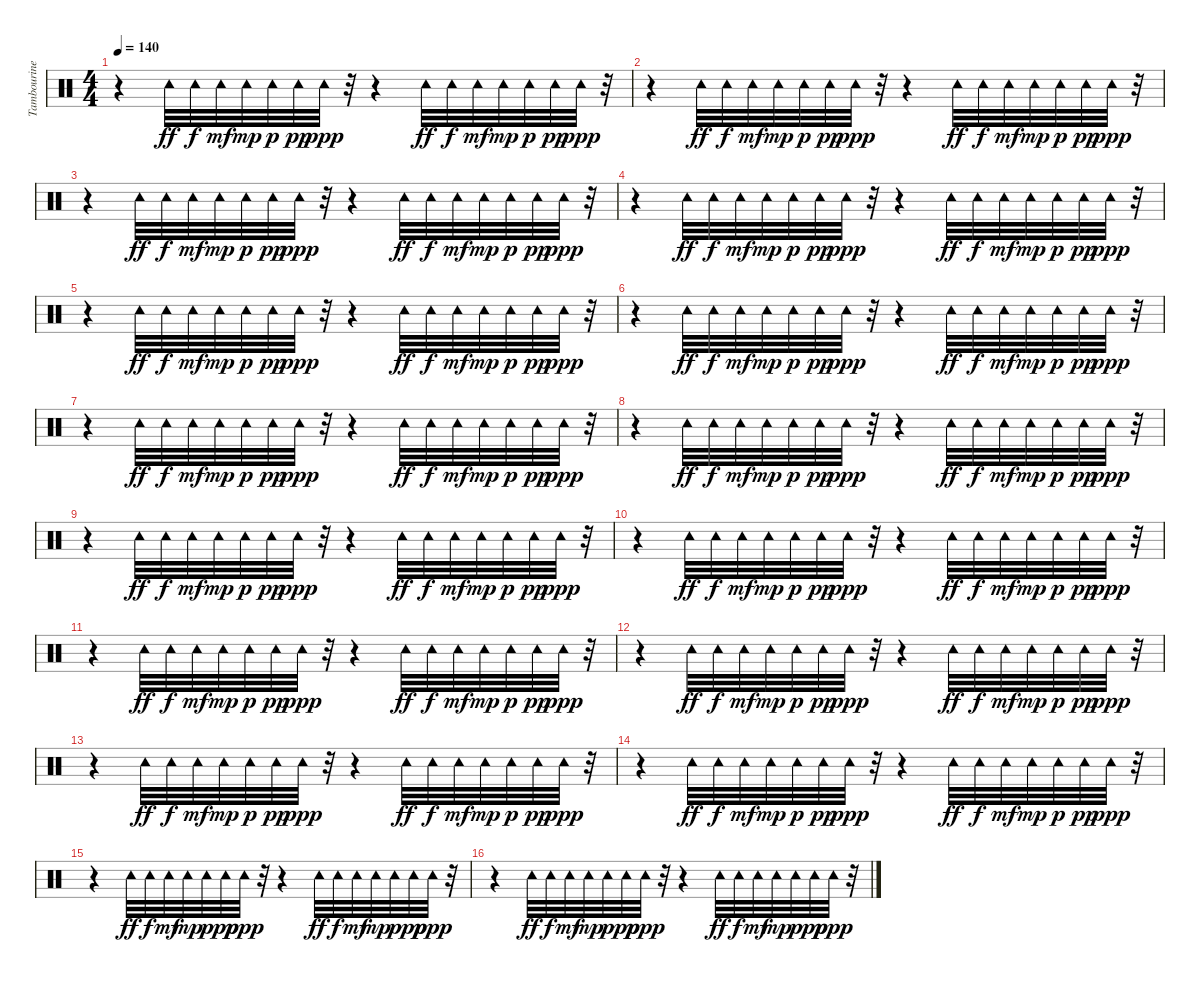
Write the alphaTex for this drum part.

\track ("Tambourine" "Tambourine") {instrument percussion}
\staff {score}
\articulation defaults
\ts (4 4)
\tempo 140
\clef neutral
\ks c
r.4{dy ppp} "Tambourine (hit)".32{dy ff} "Tambourine (hit)".32{dy f} "Tambourine (hit)".32{dy mf} "Tambourine (hit)".32{dy mp} "Tambourine (hit)".32{dy p} "Tambourine (hit)".32{dy pp} "Tambourine (hit)".32{dy ppp} r.32 r.4 "Tambourine (hit)".32{dy ff} "Tambourine (hit)".32{dy f} "Tambourine (hit)".32{dy mf} "Tambourine (hit)".32{dy mp} "Tambourine (hit)".32{dy p} "Tambourine (hit)".32{dy pp} "Tambourine (hit)".32{dy ppp} r.32 |
r.4 "Tambourine (hit)".32{dy ff} "Tambourine (hit)".32{dy f} "Tambourine (hit)".32{dy mf} "Tambourine (hit)".32{dy mp} "Tambourine (hit)".32{dy p} "Tambourine (hit)".32{dy pp} "Tambourine (hit)".32{dy ppp} r.32 r.4 "Tambourine (hit)".32{dy ff} "Tambourine (hit)".32{dy f} "Tambourine (hit)".32{dy mf} "Tambourine (hit)".32{dy mp} "Tambourine (hit)".32{dy p} "Tambourine (hit)".32{dy pp} "Tambourine (hit)".32{dy ppp} r.32 |
r.4 "Tambourine (hit)".32{dy ff} "Tambourine (hit)".32{dy f} "Tambourine (hit)".32{dy mf} "Tambourine (hit)".32{dy mp} "Tambourine (hit)".32{dy p} "Tambourine (hit)".32{dy pp} "Tambourine (hit)".32{dy ppp} r.32 r.4 "Tambourine (hit)".32{dy ff} "Tambourine (hit)".32{dy f} "Tambourine (hit)".32{dy mf} "Tambourine (hit)".32{dy mp} "Tambourine (hit)".32{dy p} "Tambourine (hit)".32{dy pp} "Tambourine (hit)".32{dy ppp} r.32 |
r.4 "Tambourine (hit)".32{dy ff} "Tambourine (hit)".32{dy f} "Tambourine (hit)".32{dy mf} "Tambourine (hit)".32{dy mp} "Tambourine (hit)".32{dy p} "Tambourine (hit)".32{dy pp} "Tambourine (hit)".32{dy ppp} r.32 r.4 "Tambourine (hit)".32{dy ff} "Tambourine (hit)".32{dy f} "Tambourine (hit)".32{dy mf} "Tambourine (hit)".32{dy mp} "Tambourine (hit)".32{dy p} "Tambourine (hit)".32{dy pp} "Tambourine (hit)".32{dy ppp} r.32 |
r.4 "Tambourine (hit)".32{dy ff} "Tambourine (hit)".32{dy f} "Tambourine (hit)".32{dy mf} "Tambourine (hit)".32{dy mp} "Tambourine (hit)".32{dy p} "Tambourine (hit)".32{dy pp} "Tambourine (hit)".32{dy ppp} r.32 r.4 "Tambourine (hit)".32{dy ff} "Tambourine (hit)".32{dy f} "Tambourine (hit)".32{dy mf} "Tambourine (hit)".32{dy mp} "Tambourine (hit)".32{dy p} "Tambourine (hit)".32{dy pp} "Tambourine (hit)".32{dy ppp} r.32 |
r.4 "Tambourine (hit)".32{dy ff} "Tambourine (hit)".32{dy f} "Tambourine (hit)".32{dy mf} "Tambourine (hit)".32{dy mp} "Tambourine (hit)".32{dy p} "Tambourine (hit)".32{dy pp} "Tambourine (hit)".32{dy ppp} r.32 r.4 "Tambourine (hit)".32{dy ff} "Tambourine (hit)".32{dy f} "Tambourine (hit)".32{dy mf} "Tambourine (hit)".32{dy mp} "Tambourine (hit)".32{dy p} "Tambourine (hit)".32{dy pp} "Tambourine (hit)".32{dy ppp} r.32 |
r.4 "Tambourine (hit)".32{dy ff} "Tambourine (hit)".32{dy f} "Tambourine (hit)".32{dy mf} "Tambourine (hit)".32{dy mp} "Tambourine (hit)".32{dy p} "Tambourine (hit)".32{dy pp} "Tambourine (hit)".32{dy ppp} r.32 r.4 "Tambourine (hit)".32{dy ff} "Tambourine (hit)".32{dy f} "Tambourine (hit)".32{dy mf} "Tambourine (hit)".32{dy mp} "Tambourine (hit)".32{dy p} "Tambourine (hit)".32{dy pp} "Tambourine (hit)".32{dy ppp} r.32 |
r.4 "Tambourine (hit)".32{dy ff} "Tambourine (hit)".32{dy f} "Tambourine (hit)".32{dy mf} "Tambourine (hit)".32{dy mp} "Tambourine (hit)".32{dy p} "Tambourine (hit)".32{dy pp} "Tambourine (hit)".32{dy ppp} r.32 r.4 "Tambourine (hit)".32{dy ff} "Tambourine (hit)".32{dy f} "Tambourine (hit)".32{dy mf} "Tambourine (hit)".32{dy mp} "Tambourine (hit)".32{dy p} "Tambourine (hit)".32{dy pp} "Tambourine (hit)".32{dy ppp} r.32 |
r.4 "Tambourine (hit)".32{dy ff} "Tambourine (hit)".32{dy f} "Tambourine (hit)".32{dy mf} "Tambourine (hit)".32{dy mp} "Tambourine (hit)".32{dy p} "Tambourine (hit)".32{dy pp} "Tambourine (hit)".32{dy ppp} r.32 r.4 "Tambourine (hit)".32{dy ff} "Tambourine (hit)".32{dy f} "Tambourine (hit)".32{dy mf} "Tambourine (hit)".32{dy mp} "Tambourine (hit)".32{dy p} "Tambourine (hit)".32{dy pp} "Tambourine (hit)".32{dy ppp} r.32 |
r.4 "Tambourine (hit)".32{dy ff} "Tambourine (hit)".32{dy f} "Tambourine (hit)".32{dy mf} "Tambourine (hit)".32{dy mp} "Tambourine (hit)".32{dy p} "Tambourine (hit)".32{dy pp} "Tambourine (hit)".32{dy ppp} r.32 r.4 "Tambourine (hit)".32{dy ff} "Tambourine (hit)".32{dy f} "Tambourine (hit)".32{dy mf} "Tambourine (hit)".32{dy mp} "Tambourine (hit)".32{dy p} "Tambourine (hit)".32{dy pp} "Tambourine (hit)".32{dy ppp} r.32 |
r.4 "Tambourine (hit)".32{dy ff} "Tambourine (hit)".32{dy f} "Tambourine (hit)".32{dy mf} "Tambourine (hit)".32{dy mp} "Tambourine (hit)".32{dy p} "Tambourine (hit)".32{dy pp} "Tambourine (hit)".32{dy ppp} r.32 r.4 "Tambourine (hit)".32{dy ff} "Tambourine (hit)".32{dy f} "Tambourine (hit)".32{dy mf} "Tambourine (hit)".32{dy mp} "Tambourine (hit)".32{dy p} "Tambourine (hit)".32{dy pp} "Tambourine (hit)".32{dy ppp} r.32 |
r.4 "Tambourine (hit)".32{dy ff} "Tambourine (hit)".32{dy f} "Tambourine (hit)".32{dy mf} "Tambourine (hit)".32{dy mp} "Tambourine (hit)".32{dy p} "Tambourine (hit)".32{dy pp} "Tambourine (hit)".32{dy ppp} r.32 r.4 "Tambourine (hit)".32{dy ff} "Tambourine (hit)".32{dy f} "Tambourine (hit)".32{dy mf} "Tambourine (hit)".32{dy mp} "Tambourine (hit)".32{dy p} "Tambourine (hit)".32{dy pp} "Tambourine (hit)".32{dy ppp} r.32 |
r.4 "Tambourine (hit)".32{dy ff} "Tambourine (hit)".32{dy f} "Tambourine (hit)".32{dy mf} "Tambourine (hit)".32{dy mp} "Tambourine (hit)".32{dy p} "Tambourine (hit)".32{dy pp} "Tambourine (hit)".32{dy ppp} r.32 r.4 "Tambourine (hit)".32{dy ff} "Tambourine (hit)".32{dy f} "Tambourine (hit)".32{dy mf} "Tambourine (hit)".32{dy mp} "Tambourine (hit)".32{dy p} "Tambourine (hit)".32{dy pp} "Tambourine (hit)".32{dy ppp} r.32 |
r.4 "Tambourine (hit)".32{dy ff} "Tambourine (hit)".32{dy f} "Tambourine (hit)".32{dy mf} "Tambourine (hit)".32{dy mp} "Tambourine (hit)".32{dy p} "Tambourine (hit)".32{dy pp} "Tambourine (hit)".32{dy ppp} r.32 r.4 "Tambourine (hit)".32{dy ff} "Tambourine (hit)".32{dy f} "Tambourine (hit)".32{dy mf} "Tambourine (hit)".32{dy mp} "Tambourine (hit)".32{dy p} "Tambourine (hit)".32{dy pp} "Tambourine (hit)".32{dy ppp} r.32 |
r.4 "Tambourine (hit)".32{dy ff} "Tambourine (hit)".32{dy f} "Tambourine (hit)".32{dy mf} "Tambourine (hit)".32{dy mp} "Tambourine (hit)".32{dy p} "Tambourine (hit)".32{dy pp} "Tambourine (hit)".32{dy ppp} r.32 r.4 "Tambourine (hit)".32{dy ff} "Tambourine (hit)".32{dy f} "Tambourine (hit)".32{dy mf} "Tambourine (hit)".32{dy mp} "Tambourine (hit)".32{dy p} "Tambourine (hit)".32{dy pp} "Tambourine (hit)".32{dy ppp} r.32 |
r.4 "Tambourine (hit)".32{dy ff} "Tambourine (hit)".32{dy f} "Tambourine (hit)".32{dy mf} "Tambourine (hit)".32{dy mp} "Tambourine (hit)".32{dy p} "Tambourine (hit)".32{dy pp} "Tambourine (hit)".32{dy ppp} r.32 r.4 "Tambourine (hit)".32{dy ff} "Tambourine (hit)".32{dy f} "Tambourine (hit)".32{dy mf} "Tambourine (hit)".32{dy mp} "Tambourine (hit)".32{dy p} "Tambourine (hit)".32{dy pp} "Tambourine (hit)".32{dy ppp} r.32
